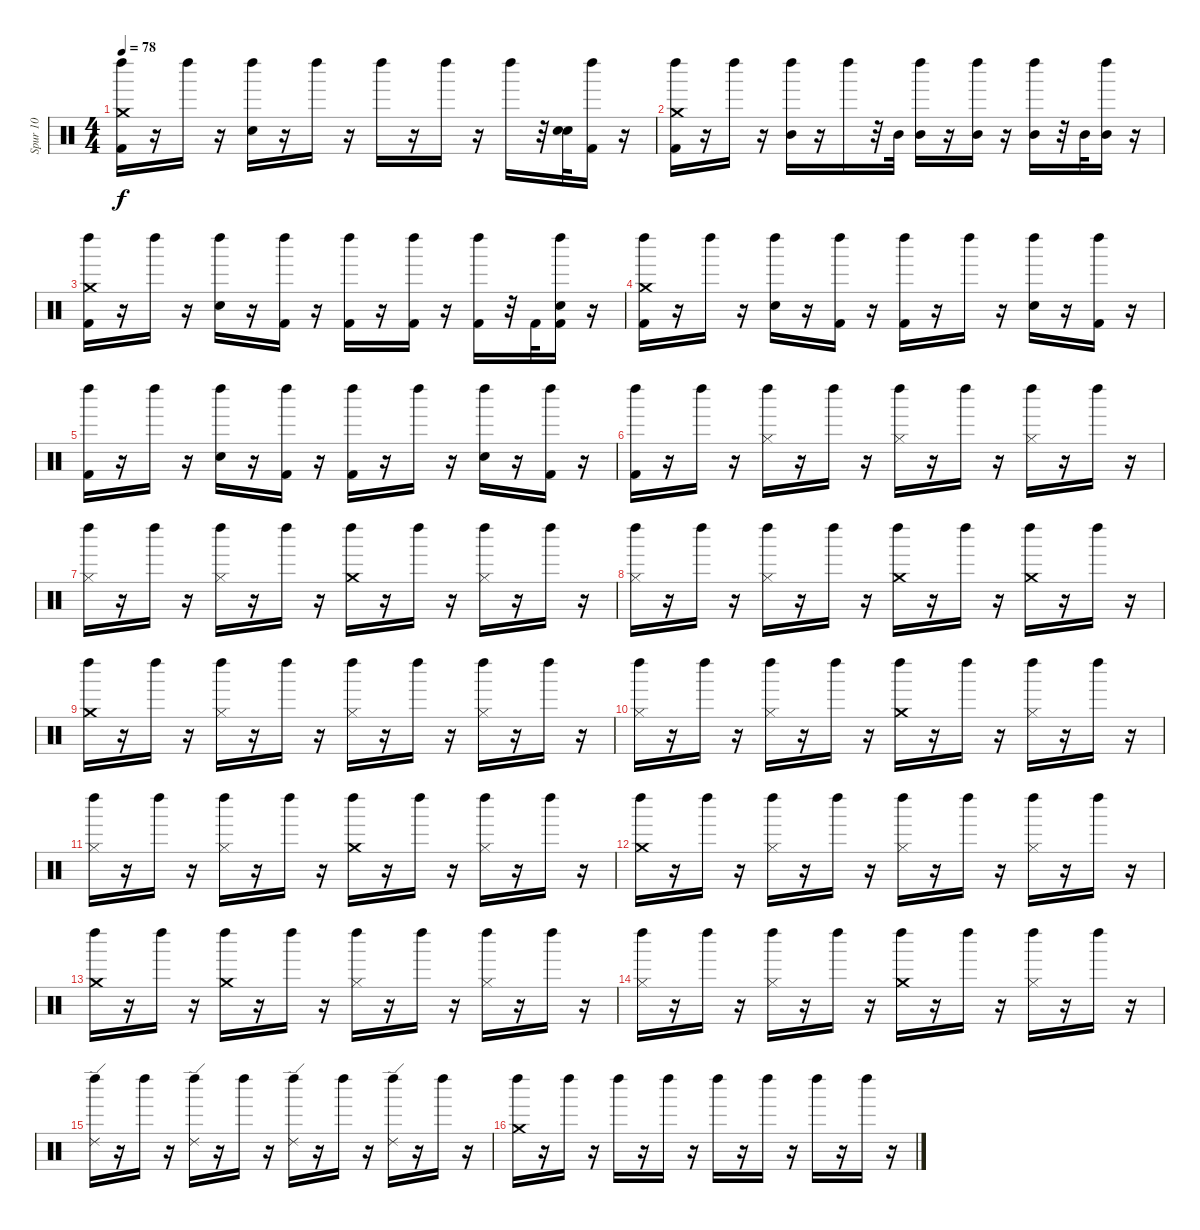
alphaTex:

\track ("Spur 10" "Spur 10") {instrument percussion}
\staff {score}
\articulation defaults
\ts (4 4)
\tempo 78
\clef neutral
\ks c
("Left Maraca (hit)" "Kick (hit) 2" "Crash medium (hit)").16{dy f} r.16 "Left Maraca (hit)".16 r.16 ("Left Maraca (hit)" "Snare (hit) 2").16 r.16 "Left Maraca (hit)".16 r.16 "Left Maraca (hit)".16 r.16 "Left Maraca (hit)".16 r.16 "Left Maraca (hit)".16 r.32 ("Snare (hit) 2" "Snare (hit) 2").32 ("Left Maraca (hit)" "Kick (hit) 2").16 r.16 |
("Left Maraca (hit)" "Crash medium (hit)" "Kick (hit) 2").16 r.16 "Left Maraca (hit)".16 r.16 ("Left Maraca (hit)" "Mid Tom (hit)").16 r.16 "Left Maraca (hit)".16 r.32 "Mid Tom (hit)".32 ("Left Maraca (hit)" "Mid Tom (hit)").16 r.16 ("Left Maraca (hit)" "Mid Tom (hit)").16 r.16 ("Left Maraca (hit)" "Mid Tom (hit)").16 r.32 "Mid Tom (hit)".32 ("Left Maraca (hit)" "Mid Tom (hit)").16 r.16 |
("Left Maraca (hit)" "Kick (hit) 2" "Crash medium (hit)").16 r.16 "Left Maraca (hit)".16 r.16 ("Left Maraca (hit)" "Snare (hit) 2").16 r.16 ("Left Maraca (hit)" "Kick (hit) 2").16 r.16 ("Left Maraca (hit)" "Kick (hit) 2").16 r.16 ("Left Maraca (hit)" "Kick (hit) 2").16 r.16 ("Left Maraca (hit)" "Kick (hit) 2").16 r.32 "Kick (hit) 2".32 ("Left Maraca (hit)" "Snare (hit) 2" "Kick (hit) 2").16 r.16 |
("Left Maraca (hit)" "Kick (hit) 2" "Crash medium (hit)").16 r.16 "Left Maraca (hit)".16 r.16 ("Left Maraca (hit)" "Snare (hit) 2").16 r.16 ("Left Maraca (hit)" "Kick (hit) 2").16 r.16 ("Left Maraca (hit)" "Kick (hit) 2").16 r.16 "Left Maraca (hit)".16 r.16 ("Left Maraca (hit)" "Snare (hit) 2").16 r.16 ("Left Maraca (hit)" "Kick (hit) 2").16 r.16 |
("Left Maraca (hit)" "Kick (hit) 2").16 r.16 "Left Maraca (hit)".16 r.16 ("Left Maraca (hit)" "Snare (hit) 2").16 r.16 ("Left Maraca (hit)" "Kick (hit) 2").16 r.16 ("Left Maraca (hit)" "Kick (hit) 2").16 r.16 "Left Maraca (hit)".16 r.16 ("Left Maraca (hit)" "Snare (hit) 2").16 r.16 ("Left Maraca (hit)" "Kick (hit) 2").16 r.16 |
("Left Maraca (hit)" "Kick (hit) 2").16 r.16 "Left Maraca (hit)".16 r.16 ("Left Maraca (hit)" "Hi-Hat (closed)").16 r.16 "Left Maraca (hit)".16 r.16 ("Left Maraca (hit)" "Hi-Hat (closed)").16 r.16 "Left Maraca (hit)".16 r.16 ("Left Maraca (hit)" "Hi-Hat (closed)").16 r.16 "Left Maraca (hit)".16 r.16 |
("Left Maraca (hit)" "Hi-Hat (closed)").16 r.16 "Left Maraca (hit)".16 r.16 ("Left Maraca (hit)" "Hi-Hat (closed)").16 r.16 "Left Maraca (hit)".16 r.16 ("Left Maraca (hit)" "Crash medium (hit)").16 r.16 "Left Maraca (hit)".16 r.16 ("Left Maraca (hit)" "Hi-Hat (closed)").16 r.16 "Left Maraca (hit)".16 r.16 |
("Left Maraca (hit)" "Hi-Hat (closed)").16 r.16 "Left Maraca (hit)".16 r.16 ("Left Maraca (hit)" "Hi-Hat (closed)").16 r.16 "Left Maraca (hit)".16 r.16 ("Left Maraca (hit)" "Crash medium (hit)").16 r.16 "Left Maraca (hit)".16 r.16 ("Left Maraca (hit)" "Crash medium (hit)").16 r.16 "Left Maraca (hit)".16 r.16 |
("Left Maraca (hit)" "Crash medium (hit)").16 r.16 "Left Maraca (hit)".16 r.16 ("Left Maraca (hit)" "Hi-Hat (closed)").16 r.16 "Left Maraca (hit)".16 r.16 ("Left Maraca (hit)" "Hi-Hat (closed)").16 r.16 "Left Maraca (hit)".16 r.16 ("Left Maraca (hit)" "Hi-Hat (closed)").16 r.16 "Left Maraca (hit)".16 r.16 |
("Left Maraca (hit)" "Hi-Hat (closed)").16 r.16 "Left Maraca (hit)".16 r.16 ("Left Maraca (hit)" "Hi-Hat (closed)").16 r.16 "Left Maraca (hit)".16 r.16 ("Left Maraca (hit)" "Crash medium (hit)").16 r.16 "Left Maraca (hit)".16 r.16 ("Left Maraca (hit)" "Hi-Hat (closed)").16 r.16 "Left Maraca (hit)".16 r.16 |
("Left Maraca (hit)" "Hi-Hat (closed)").16 r.16 "Left Maraca (hit)".16 r.16 ("Left Maraca (hit)" "Hi-Hat (closed)").16 r.16 "Left Maraca (hit)".16 r.16 ("Left Maraca (hit)" "Crash medium (hit)").16 r.16 "Left Maraca (hit)".16 r.16 ("Left Maraca (hit)" "Hi-Hat (closed)").16 r.16 "Left Maraca (hit)".16 r.16 |
("Left Maraca (hit)" "Crash medium (hit)").16 r.16 "Left Maraca (hit)".16 r.16 ("Left Maraca (hit)" "Hi-Hat (closed)").16 r.16 "Left Maraca (hit)".16 r.16 ("Left Maraca (hit)" "Hi-Hat (closed)").16 r.16 "Left Maraca (hit)".16 r.16 ("Left Maraca (hit)" "Hi-Hat (closed)").16 r.16 "Left Maraca (hit)".16 r.16 |
("Left Maraca (hit)" "Crash medium (hit)").16 r.16 "Left Maraca (hit)".16 r.16 ("Left Maraca (hit)" "Crash medium (hit)").16 r.16 "Left Maraca (hit)".16 r.16 ("Left Maraca (hit)" "Hi-Hat (closed)").16 r.16 "Left Maraca (hit)".16 r.16 ("Left Maraca (hit)" "Hi-Hat (closed)").16 r.16 "Left Maraca (hit)".16 r.16 |
("Left Maraca (hit)" "Hi-Hat (closed)").16 r.16 "Left Maraca (hit)".16 r.16 ("Left Maraca (hit)" "Hi-Hat (closed)").16 r.16 "Left Maraca (hit)".16 r.16 ("Left Maraca (hit)" "Crash medium (hit)").16 r.16 "Left Maraca (hit)".16 r.16 ("Left Maraca (hit)" "Hi-Hat (closed)").16 r.16 "Left Maraca (hit)".16 r.16 |
("Left Maraca (hit)" "Ride (edge) 2").16 r.16 "Left Maraca (hit)".16 r.16 ("Left Maraca (hit)" "Ride (edge) 2").16 r.16 "Left Maraca (hit)".16 r.16 ("Left Maraca (hit)" "Ride (edge) 2").16 r.16 "Left Maraca (hit)".16 r.16 ("Left Maraca (hit)" "Ride (edge) 2").16 r.16 "Left Maraca (hit)".16 r.16 |
("Left Maraca (hit)" "Crash medium (hit)").16 r.16 "Left Maraca (hit)".16 r.16 "Left Maraca (hit)".16 r.16 "Left Maraca (hit)".16 r.16 "Left Maraca (hit)".16 r.16 "Left Maraca (hit)".16 r.16 "Left Maraca (hit)".16 r.16 "Left Maraca (hit)".16 r.16
